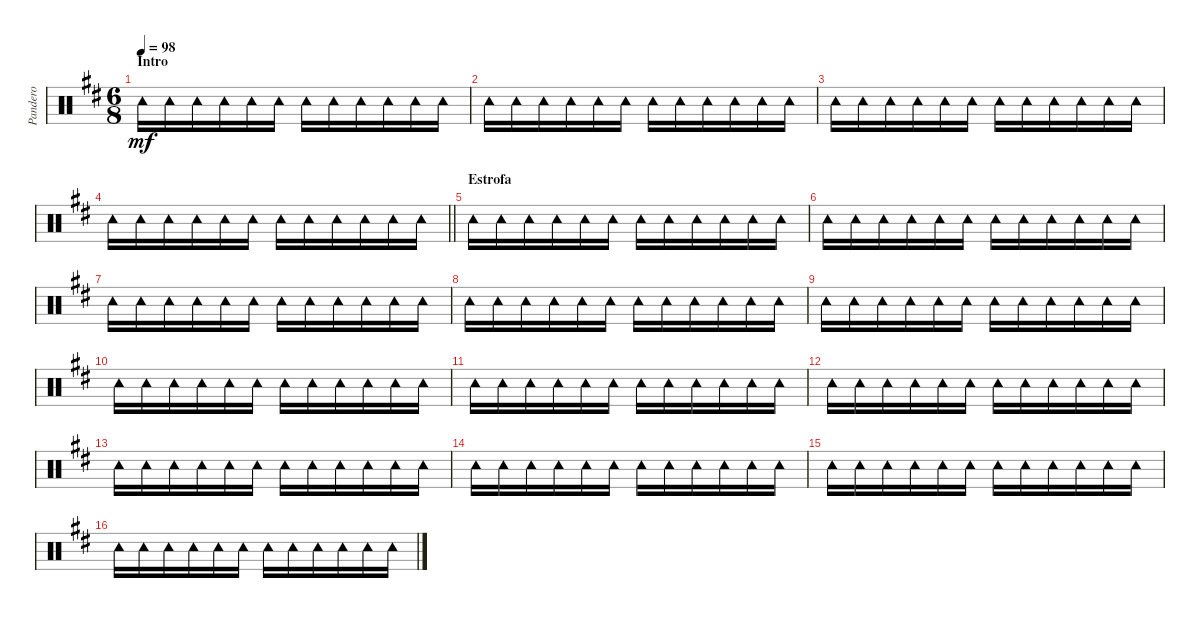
\track ("Pandero" "Pandero") {instrument percussion}
\staff {score}
\articulation defaults
\ts (6 8)
\section ("" "Intro")
\tempo 98
\clef neutral
\ks d "Tambourine (hit)".16{dy mf} "Tambourine (hit)".16 "Tambourine (hit)".16 "Tambourine (hit)".16 "Tambourine (hit)".16 "Tambourine (hit)".16 "Tambourine (hit)".16 "Tambourine (hit)".16 "Tambourine (hit)".16 "Tambourine (hit)".16 "Tambourine (hit)".16 "Tambourine (hit)".16
|
"Tambourine (hit)".16 "Tambourine (hit)".16 "Tambourine (hit)".16 "Tambourine (hit)".16 "Tambourine (hit)".16 "Tambourine (hit)".16 "Tambourine (hit)".16 "Tambourine (hit)".16 "Tambourine (hit)".16 "Tambourine (hit)".16 "Tambourine (hit)".16 "Tambourine (hit)".16 |
"Tambourine (hit)".16 "Tambourine (hit)".16 "Tambourine (hit)".16 "Tambourine (hit)".16 "Tambourine (hit)".16 "Tambourine (hit)".16 "Tambourine (hit)".16 "Tambourine (hit)".16 "Tambourine (hit)".16 "Tambourine (hit)".16 "Tambourine (hit)".16 "Tambourine (hit)".16 |
\barLineRight lightlight "Tambourine (hit)".16 "Tambourine (hit)".16 "Tambourine (hit)".16 "Tambourine (hit)".16 "Tambourine (hit)".16 "Tambourine (hit)".16 "Tambourine (hit)".16 "Tambourine (hit)".16 "Tambourine (hit)".16 "Tambourine (hit)".16 "Tambourine (hit)".16 "Tambourine (hit)".16
|
\section ("" "Estrofa")
"Tambourine (hit)".16 "Tambourine (hit)".16 "Tambourine (hit)".16 "Tambourine (hit)".16 "Tambourine (hit)".16 "Tambourine (hit)".16 "Tambourine (hit)".16 "Tambourine (hit)".16 "Tambourine (hit)".16 "Tambourine (hit)".16 "Tambourine (hit)".16 "Tambourine (hit)".16 |
"Tambourine (hit)".16 "Tambourine (hit)".16 "Tambourine (hit)".16 "Tambourine (hit)".16 "Tambourine (hit)".16 "Tambourine (hit)".16 "Tambourine (hit)".16 "Tambourine (hit)".16 "Tambourine (hit)".16 "Tambourine (hit)".16 "Tambourine (hit)".16 "Tambourine (hit)".16 |
"Tambourine (hit)".16 "Tambourine (hit)".16 "Tambourine (hit)".16 "Tambourine (hit)".16 "Tambourine (hit)".16 "Tambourine (hit)".16 "Tambourine (hit)".16 "Tambourine (hit)".16 "Tambourine (hit)".16 "Tambourine (hit)".16 "Tambourine (hit)".16 "Tambourine (hit)".16 |
"Tambourine (hit)".16 "Tambourine (hit)".16 "Tambourine (hit)".16 "Tambourine (hit)".16 "Tambourine (hit)".16 "Tambourine (hit)".16 "Tambourine (hit)".16 "Tambourine (hit)".16 "Tambourine (hit)".16 "Tambourine (hit)".16 "Tambourine (hit)".16 "Tambourine (hit)".16 |
"Tambourine (hit)".16 "Tambourine (hit)".16 "Tambourine (hit)".16 "Tambourine (hit)".16 "Tambourine (hit)".16 "Tambourine (hit)".16 "Tambourine (hit)".16 "Tambourine (hit)".16 "Tambourine (hit)".16 "Tambourine (hit)".16 "Tambourine (hit)".16 "Tambourine (hit)".16 |
"Tambourine (hit)".16 "Tambourine (hit)".16 "Tambourine (hit)".16 "Tambourine (hit)".16 "Tambourine (hit)".16 "Tambourine (hit)".16 "Tambourine (hit)".16 "Tambourine (hit)".16 "Tambourine (hit)".16 "Tambourine (hit)".16 "Tambourine (hit)".16 "Tambourine (hit)".16 |
"Tambourine (hit)".16 "Tambourine (hit)".16 "Tambourine (hit)".16 "Tambourine (hit)".16 "Tambourine (hit)".16 "Tambourine (hit)".16 "Tambourine (hit)".16 "Tambourine (hit)".16 "Tambourine (hit)".16 "Tambourine (hit)".16 "Tambourine (hit)".16 "Tambourine (hit)".16 |
"Tambourine (hit)".16 "Tambourine (hit)".16 "Tambourine (hit)".16 "Tambourine (hit)".16 "Tambourine (hit)".16 "Tambourine (hit)".16 "Tambourine (hit)".16 "Tambourine (hit)".16 "Tambourine (hit)".16 "Tambourine (hit)".16 "Tambourine (hit)".16 "Tambourine (hit)".16 |
"Tambourine (hit)".16 "Tambourine (hit)".16 "Tambourine (hit)".16 "Tambourine (hit)".16 "Tambourine (hit)".16 "Tambourine (hit)".16 "Tambourine (hit)".16 "Tambourine (hit)".16 "Tambourine (hit)".16 "Tambourine (hit)".16 "Tambourine (hit)".16 "Tambourine (hit)".16 |
"Tambourine (hit)".16 "Tambourine (hit)".16 "Tambourine (hit)".16 "Tambourine (hit)".16 "Tambourine (hit)".16 "Tambourine (hit)".16 "Tambourine (hit)".16 "Tambourine (hit)".16 "Tambourine (hit)".16 "Tambourine (hit)".16 "Tambourine (hit)".16 "Tambourine (hit)".16 |
"Tambourine (hit)".16 "Tambourine (hit)".16 "Tambourine (hit)".16 "Tambourine (hit)".16 "Tambourine (hit)".16 "Tambourine (hit)".16 "Tambourine (hit)".16 "Tambourine (hit)".16 "Tambourine (hit)".16 "Tambourine (hit)".16 "Tambourine (hit)".16 "Tambourine (hit)".16 |
"Tambourine (hit)".16 "Tambourine (hit)".16 "Tambourine (hit)".16 "Tambourine (hit)".16 "Tambourine (hit)".16 "Tambourine (hit)".16 "Tambourine (hit)".16 "Tambourine (hit)".16 "Tambourine (hit)".16 "Tambourine (hit)".16 "Tambourine (hit)".16 "Tambourine (hit)".16
